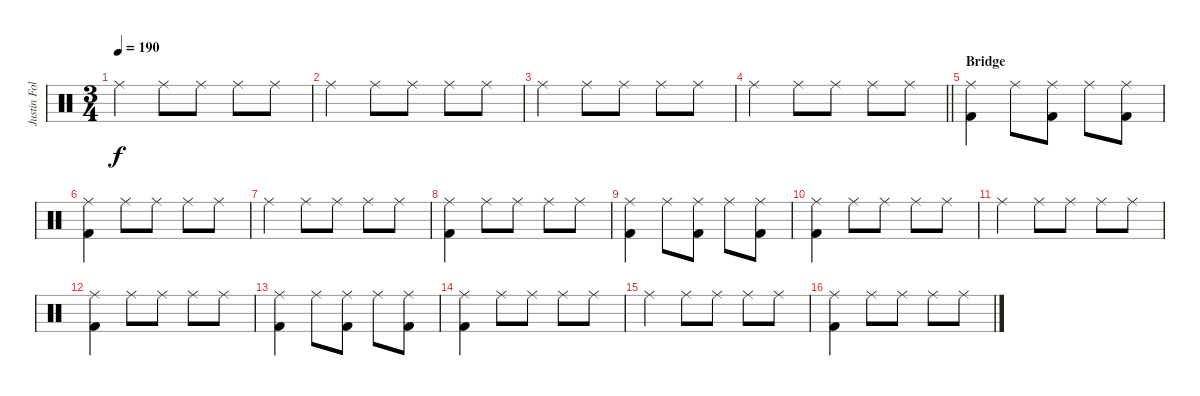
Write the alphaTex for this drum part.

\track ("Justin Foley" "Justin Fol") {instrument percussion}
\staff {score}
\articulation defaults
\ts (3 4)
\tempo 190
\clef neutral
\ks c "Ride (middle)".4{dy f} "Ride (middle)".8 "Ride (middle)".8 "Ride (middle)".8 "Ride (middle)".8
|
"Ride (middle)".4 "Ride (middle)".8 "Ride (middle)".8 "Ride (middle)".8 "Ride (middle)".8 |
"Ride (middle)".4 "Ride (middle)".8 "Ride (middle)".8 "Ride (middle)".8 "Ride (middle)".8 |
\barLineRight lightlight "Ride (middle)".4 "Ride (middle)".8 "Ride (middle)".8 "Ride (middle)".8 "Ride (middle)".8
|
\section ("" "Bridge")
("Ride (middle)" "Kick (hit) 2").4 "Ride (middle)".8 ("Ride (middle)" "Kick (hit) 2").8 "Ride (middle)".8 ("Ride (middle)" "Kick (hit) 2").8 |
("Ride (middle)" "Kick (hit) 2").4 "Ride (middle)".8 "Ride (middle)".8 "Ride (middle)".8 "Ride (middle)".8 |
"Ride (middle)".4 "Ride (middle)".8 "Ride (middle)".8 "Ride (middle)".8 "Ride (middle)".8 |
("Ride (middle)" "Kick (hit) 2").4 "Ride (middle)".8 "Ride (middle)".8 "Ride (middle)".8 "Ride (middle)".8 |
("Ride (middle)" "Kick (hit) 2").4 "Ride (middle)".8 ("Ride (middle)" "Kick (hit) 2").8 "Ride (middle)".8 ("Ride (middle)" "Kick (hit) 2").8 |
("Ride (middle)" "Kick (hit) 2").4 "Ride (middle)".8 "Ride (middle)".8 "Ride (middle)".8 "Ride (middle)".8 |
"Ride (middle)".4 "Ride (middle)".8 "Ride (middle)".8 "Ride (middle)".8 "Ride (middle)".8 |
("Ride (middle)" "Kick (hit) 2").4 "Ride (middle)".8 "Ride (middle)".8 "Ride (middle)".8 "Ride (middle)".8 |
("Ride (middle)" "Kick (hit) 2").4 "Ride (middle)".8 ("Ride (middle)" "Kick (hit) 2").8 "Ride (middle)".8 ("Ride (middle)" "Kick (hit) 2").8 |
("Ride (middle)" "Kick (hit) 2").4 "Ride (middle)".8 "Ride (middle)".8 "Ride (middle)".8 "Ride (middle)".8 |
"Ride (middle)".4 "Ride (middle)".8 "Ride (middle)".8 "Ride (middle)".8 "Ride (middle)".8 |
("Ride (middle)" "Kick (hit) 2").4 "Ride (middle)".8 "Ride (middle)".8 "Ride (middle)".8 "Ride (middle)".8
